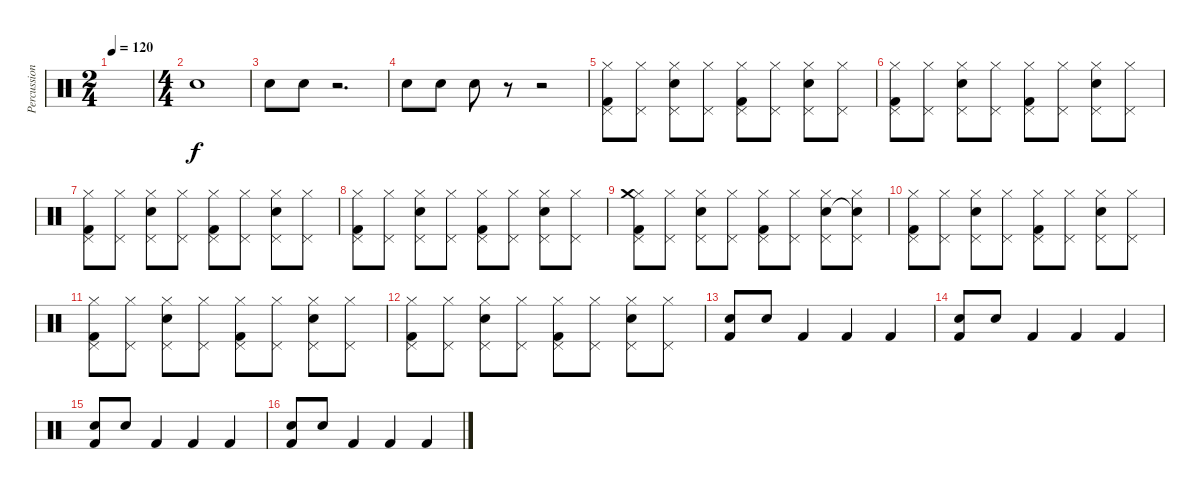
\track ("Percussions" "Percussion") {instrument percussion}
\staff {score}
\articulation defaults
\ts (2 4)
\tempo 120
\clef neutral
\ks c
|
\ts (4 4)
"Electric Snare (hit)".1 |
"Electric Snare (hit)".8 "Electric Snare (hit)".8 r.2{d} |
"Electric Snare (hit)".8 "Electric Snare (hit)".8 "Electric Snare (hit)".8 r.8 r.2 |
("Hi-Hat (closed)" "Pedal Hi-Hat (hit)" "Kick (hit) 2").8 ("Hi-Hat (closed)" "Pedal Hi-Hat (hit)").8 ("Hi-Hat (closed)" "Pedal Hi-Hat (hit)" "Electric Snare (hit)").8 ("Hi-Hat (closed)" "Pedal Hi-Hat (hit)").8 ("Hi-Hat (closed)" "Pedal Hi-Hat (hit)" "Kick (hit) 2").8 ("Hi-Hat (closed)" "Pedal Hi-Hat (hit)").8 ("Hi-Hat (closed)" "Pedal Hi-Hat (hit)" "Electric Snare (hit)").8 ("Hi-Hat (closed)" "Pedal Hi-Hat (hit)").8 |
("Hi-Hat (closed)" "Pedal Hi-Hat (hit)" "Kick (hit) 2").8 ("Hi-Hat (closed)" "Pedal Hi-Hat (hit)").8 ("Hi-Hat (closed)" "Pedal Hi-Hat (hit)" "Electric Snare (hit)").8 ("Hi-Hat (closed)" "Pedal Hi-Hat (hit)").8 ("Hi-Hat (closed)" "Pedal Hi-Hat (hit)" "Kick (hit) 2").8 ("Hi-Hat (closed)" "Pedal Hi-Hat (hit)").8 ("Hi-Hat (closed)" "Pedal Hi-Hat (hit)" "Electric Snare (hit)").8 ("Hi-Hat (closed)" "Pedal Hi-Hat (hit)").8 |
("Hi-Hat (closed)" "Pedal Hi-Hat (hit)" "Kick (hit) 2").8 ("Hi-Hat (closed)" "Pedal Hi-Hat (hit)").8 ("Hi-Hat (closed)" "Pedal Hi-Hat (hit)" "Electric Snare (hit)").8 ("Hi-Hat (closed)" "Pedal Hi-Hat (hit)").8 ("Hi-Hat (closed)" "Pedal Hi-Hat (hit)" "Kick (hit) 2").8 ("Hi-Hat (closed)" "Pedal Hi-Hat (hit)").8 ("Hi-Hat (closed)" "Pedal Hi-Hat (hit)" "Electric Snare (hit)").8 ("Hi-Hat (closed)" "Pedal Hi-Hat (hit)").8 |
("Hi-Hat (closed)" "Pedal Hi-Hat (hit)" "Kick (hit) 2").8 ("Hi-Hat (closed)" "Pedal Hi-Hat (hit)").8 ("Hi-Hat (closed)" "Pedal Hi-Hat (hit)" "Electric Snare (hit)").8 ("Hi-Hat (closed)" "Pedal Hi-Hat (hit)").8 ("Hi-Hat (closed)" "Pedal Hi-Hat (hit)" "Kick (hit) 2").8 ("Hi-Hat (closed)" "Pedal Hi-Hat (hit)").8 ("Hi-Hat (closed)" "Pedal Hi-Hat (hit)" "Electric Snare (hit)").8 ("Hi-Hat (closed)" "Pedal Hi-Hat (hit)").8 |
("Hi-Hat (closed)" "Pedal Hi-Hat (hit)" "Crash medium (hit)" "Kick (hit) 2").8 ("Hi-Hat (closed)" "Pedal Hi-Hat (hit)").8 ("Hi-Hat (closed)" "Pedal Hi-Hat (hit)" "Electric Snare (hit)").8 ("Hi-Hat (closed)" "Pedal Hi-Hat (hit)").8 ("Hi-Hat (closed)" "Pedal Hi-Hat (hit)" "Kick (hit) 2").8 ("Hi-Hat (closed)" "Pedal Hi-Hat (hit)").8 ("Hi-Hat (closed)" "Pedal Hi-Hat (hit)" "Electric Snare (hit)").8 ("Hi-Hat (closed)" "Pedal Hi-Hat (hit)" "Snare (hit)"{t}).8 |
("Hi-Hat (closed)" "Pedal Hi-Hat (hit)" "Kick (hit) 2").8 ("Hi-Hat (closed)" "Pedal Hi-Hat (hit)").8 ("Hi-Hat (closed)" "Pedal Hi-Hat (hit)" "Electric Snare (hit)").8 ("Hi-Hat (closed)" "Pedal Hi-Hat (hit)").8 ("Hi-Hat (closed)" "Pedal Hi-Hat (hit)" "Kick (hit) 2").8 ("Hi-Hat (closed)" "Pedal Hi-Hat (hit)").8 ("Hi-Hat (closed)" "Pedal Hi-Hat (hit)" "Electric Snare (hit)").8 ("Hi-Hat (closed)" "Pedal Hi-Hat (hit)").8 |
("Hi-Hat (closed)" "Pedal Hi-Hat (hit)" "Kick (hit) 2").8 ("Hi-Hat (closed)" "Pedal Hi-Hat (hit)").8 ("Hi-Hat (closed)" "Pedal Hi-Hat (hit)" "Electric Snare (hit)").8 ("Hi-Hat (closed)" "Pedal Hi-Hat (hit)").8 ("Hi-Hat (closed)" "Pedal Hi-Hat (hit)" "Kick (hit) 2").8 ("Hi-Hat (closed)" "Pedal Hi-Hat (hit)").8 ("Hi-Hat (closed)" "Pedal Hi-Hat (hit)" "Electric Snare (hit)").8 ("Hi-Hat (closed)" "Pedal Hi-Hat (hit)").8 |
("Hi-Hat (closed)" "Pedal Hi-Hat (hit)" "Kick (hit) 2").8 ("Hi-Hat (closed)" "Pedal Hi-Hat (hit)").8 ("Hi-Hat (closed)" "Pedal Hi-Hat (hit)" "Electric Snare (hit)").8 ("Hi-Hat (closed)" "Pedal Hi-Hat (hit)").8 ("Hi-Hat (closed)" "Pedal Hi-Hat (hit)" "Kick (hit) 2").8 ("Hi-Hat (closed)" "Pedal Hi-Hat (hit)").8 ("Hi-Hat (closed)" "Pedal Hi-Hat (hit)" "Electric Snare (hit)").8 ("Hi-Hat (closed)" "Pedal Hi-Hat (hit)").8 |
("Electric Snare (hit)" "Kick (hit) 2").8 "Electric Snare (hit)".8 "Kick (hit) 2".4 "Kick (hit) 2".4 "Kick (hit) 2".4 |
("Electric Snare (hit)" "Kick (hit) 2").8 "Electric Snare (hit)".8 "Kick (hit) 2".4 "Kick (hit) 2".4 "Kick (hit) 2".4 |
("Electric Snare (hit)" "Kick (hit) 2").8 "Electric Snare (hit)".8 "Kick (hit) 2".4 "Kick (hit) 2".4 "Kick (hit) 2".4 |
("Electric Snare (hit)" "Kick (hit) 2").8 "Electric Snare (hit)".8 "Kick (hit) 2".4 "Kick (hit) 2".4 "Kick (hit) 2".4
